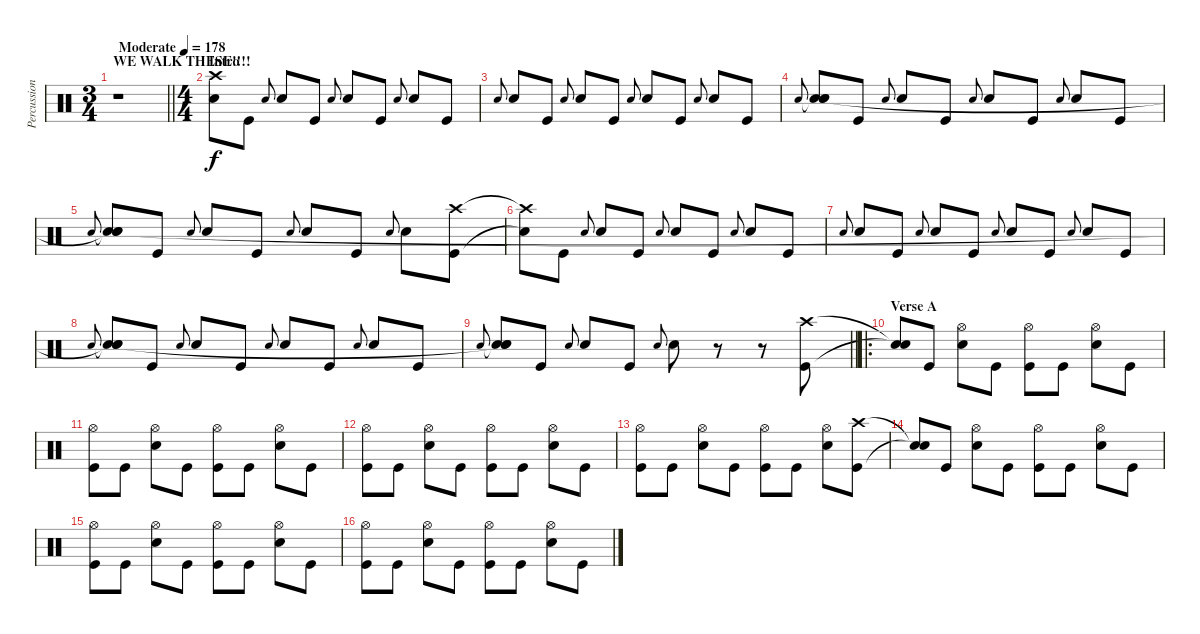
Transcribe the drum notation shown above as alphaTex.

\track ("Percussion" "Percussion") {instrument percussion}
\staff {score}
\articulation defaults
\ts (3 4)
\section ("" "WE WALK THESE!!!!")
\tempo (178 "Moderate")
\clef neutral
\barLineRight lightlight
\ks c
r.1{dy f} |
\ts (4 4)
\section ("" "Intro")
("Crash high (hit)" "Snare (hit) 2").8 "Kick (hit)".8 "Snare (hit) 2".8{gr onbeat} "Snare (hit) 2".8 "Kick (hit)".8 "Snare (hit) 2".8{gr onbeat} "Snare (hit) 2".8 "Kick (hit)".8 "Snare (hit) 2".8{gr onbeat} "Snare (hit) 2".8 "Kick (hit)".8 |
"Snare (hit) 2".8{gr onbeat} "Snare (hit) 2".8 "Kick (hit)".8 "Snare (hit) 2".8{gr onbeat} "Snare (hit) 2".8 "Kick (hit)".8 "Snare (hit) 2".8{gr onbeat} "Snare (hit) 2".8 "Kick (hit)".8 "Snare (hit) 2".8{gr onbeat} "Snare (hit) 2".8 "Kick (hit)".8 |
"Snare (hit) 2".8{gr onbeat} ("Snare (hit)"{t} "Snare (hit) 2" "Snare (hit)").8 "Kick (hit)".8 "Snare (hit) 2".8{gr onbeat} "Snare (hit) 2".8 "Kick (hit)".8 "Snare (hit) 2".8{gr onbeat} "Snare (hit) 2".8 "Kick (hit)".8 "Snare (hit) 2".8{gr onbeat} "Snare (hit) 2".8 "Kick (hit)".8 |
"Snare (hit) 2".8{gr onbeat} ("Snare (hit)"{t} "Snare (hit) 2" "Snare (hit)"{t}).8 "Kick (hit)".8 "Snare (hit) 2".8{gr onbeat} "Snare (hit) 2".8 "Kick (hit)".8 "Snare (hit) 2".8{gr onbeat} "Snare (hit) 2".8 "Kick (hit)".8 "Snare (hit) 2".8{gr onbeat} "Snare (hit) 2".8 ("Crash high (hit)" "Kick (hit)").8 |
("Crash high (hit)"{t} "Snare (hit)"{t}).8 "Kick (hit)".8 "Snare (hit) 2".8{gr onbeat} "Snare (hit) 2".8 "Kick (hit)".8 "Snare (hit) 2".8{gr onbeat} "Snare (hit) 2".8 "Kick (hit)".8 "Snare (hit) 2".8{gr onbeat} "Snare (hit) 2".8 "Kick (hit)".8 |
"Snare (hit) 2".8{gr onbeat} "Snare (hit) 2".8 "Kick (hit)".8 "Snare (hit) 2".8{gr onbeat} "Snare (hit) 2".8 "Kick (hit)".8 "Snare (hit) 2".8{gr onbeat} "Snare (hit) 2".8 "Kick (hit)".8 "Snare (hit) 2".8{gr onbeat} "Snare (hit) 2".8 "Kick (hit)".8 |
"Snare (hit) 2".8{gr onbeat} ("Snare (hit)"{t} "Snare (hit) 2" "Snare (hit)"{t}).8 "Kick (hit)".8 "Snare (hit) 2".8{gr onbeat} "Snare (hit) 2".8 "Kick (hit)".8 "Snare (hit) 2".8{gr onbeat} "Snare (hit) 2".8 "Kick (hit)".8 "Snare (hit) 2".8{gr onbeat} "Snare (hit) 2".8 "Kick (hit)".8 |
\barLineRight lightlight "Snare (hit) 2".8{gr onbeat}
("Snare (hit)"{t} "Snare (hit) 2" "Snare (hit)"{t}).8 "Kick (hit)".8 "Snare (hit) 2".8{gr onbeat} "Snare (hit) 2".8 "Kick (hit)".8 "Snare (hit) 2".8{gr onbeat} "Snare (hit) 2".8 r.8 r.8 ("Crash high (hit)" "Kick (hit)").8 |
\ro
\section ("" "Verse A")
("Snare (hit)"{t} "Snare (hit)"{t}).8 "Kick (hit)".8 ("Hi-Hat (open)" "Snare (hit) 2").8 "Kick (hit)".8 ("Hi-Hat (open)" "Kick (hit)").8 "Kick (hit)".8 ("Hi-Hat (open)" "Snare (hit) 2").8 "Kick (hit)".8 |
("Hi-Hat (open)" "Kick (hit)").8 "Kick (hit)".8 ("Hi-Hat (open)" "Snare (hit) 2").8 "Kick (hit)".8 ("Hi-Hat (open)" "Kick (hit)").8 "Kick (hit)".8 ("Hi-Hat (open)" "Snare (hit) 2").8 "Kick (hit)".8 |
("Hi-Hat (open)" "Kick (hit)").8 "Kick (hit)".8 ("Hi-Hat (open)" "Snare (hit) 2").8 "Kick (hit)".8 ("Hi-Hat (open)" "Kick (hit)").8 "Kick (hit)".8 ("Hi-Hat (open)" "Snare (hit) 2").8 "Kick (hit)".8 |
("Hi-Hat (open)" "Kick (hit)").8 "Kick (hit)".8 ("Hi-Hat (open)" "Snare (hit) 2").8 "Kick (hit)".8 ("Hi-Hat (open)" "Kick (hit)").8 "Kick (hit)".8 ("Hi-Hat (open)" "Snare (hit) 2").8 ("Crash high (hit)" "Kick (hit)").8 |
("Snare (hit)"{t} "Snare (hit)"{t}).8 "Kick (hit)".8 ("Hi-Hat (open)" "Snare (hit) 2").8 "Kick (hit)".8 ("Hi-Hat (open)" "Kick (hit)").8 "Kick (hit)".8 ("Hi-Hat (open)" "Snare (hit) 2").8 "Kick (hit)".8 |
("Hi-Hat (open)" "Kick (hit)").8 "Kick (hit)".8 ("Hi-Hat (open)" "Snare (hit) 2").8 "Kick (hit)".8 ("Hi-Hat (open)" "Kick (hit)").8 "Kick (hit)".8 ("Hi-Hat (open)" "Snare (hit) 2").8 "Kick (hit)".8 |
("Hi-Hat (open)" "Kick (hit)").8 "Kick (hit)".8 ("Hi-Hat (open)" "Snare (hit) 2").8 "Kick (hit)".8 ("Hi-Hat (open)" "Kick (hit)").8 "Kick (hit)".8 ("Hi-Hat (open)" "Snare (hit) 2").8 "Kick (hit)".8
